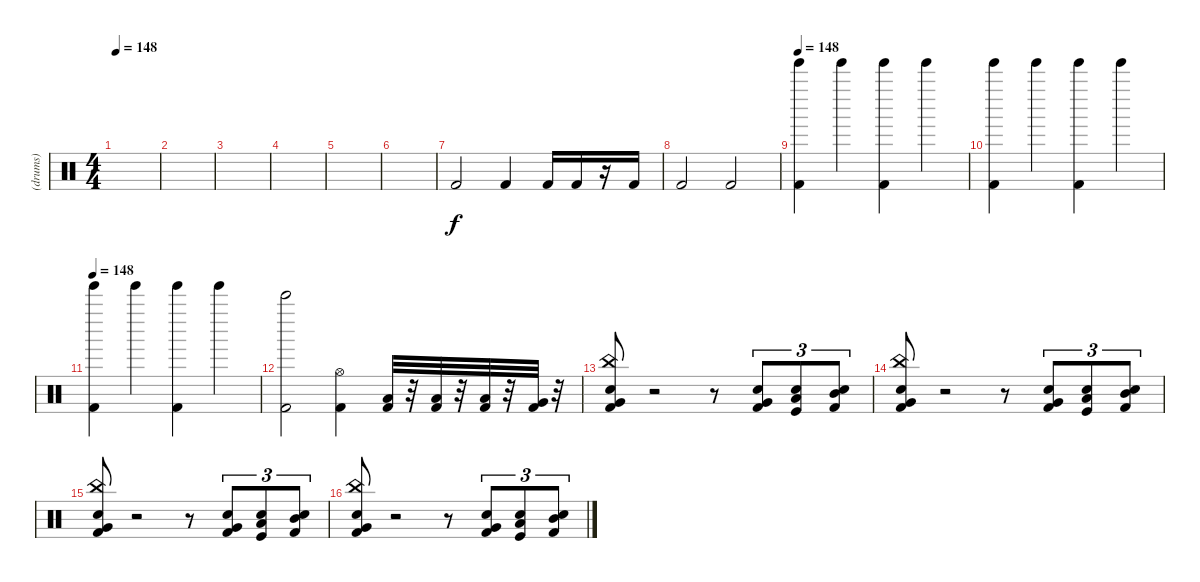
\track ("(drums)" "(drums)") {instrument percussion}
\staff {score}
\articulation defaults
\ts (4 4)
\tempo 148
\clef neutral
\ks c
|
|
|
|
|
|
"Kick (hit) 2".2 "Kick (hit) 2".4 "Kick (hit) 2".16 "Kick (hit) 2".16 r.16 "Kick (hit) 2".16 |
"Kick (hit) 2".2 "Kick (hit) 2".2 |
\tempo 148
("Kick (hit) 2" "Tinkle Bell (hit)").4 "Tinkle Bell (hit)".4 ("Kick (hit) 2" "Tinkle Bell (hit)").4 "Tinkle Bell (hit)".4 |
("Kick (hit) 2" "Tinkle Bell (hit)").4 "Tinkle Bell (hit)".4 ("Kick (hit) 2" "Tinkle Bell (hit)").4 "Tinkle Bell (hit)".4 |
\tempo 148
("Kick (hit) 2" "Tinkle Bell (hit)").4 "Tinkle Bell (hit)".4 ("Kick (hit) 2" "Tinkle Bell (hit)").4 "Tinkle Bell (hit)".4 |
("Bell Tree (hit)" "Kick (hit) 2").2 ("Hi-Hat (open)" "Kick (hit) 2").4 ("Low Tom (hit)" "Kick (hit) 2").32 r.32 ("Low Tom (hit)" "Kick (hit) 2").32 r.32 ("Low Tom (hit)" "Kick (hit) 2").32 r.32 ("Very Low Tom (hit)" "Kick (hit) 2").32 r.32 |
("China (hit)" "Electric Snare (hit)" "Kick (hit) 2" "Very Low Tom (hit)").8 r.2 r.8 ("Kick (hit) 2" "Electric Snare (hit)" "Very Low Tom (hit)").8{tu (3 2)} ("Kick (hit)" "Electric Snare (hit)" "Low Tom (hit)").8{tu (3 2)} ("Kick (hit) 2" "Electric Snare (hit)" "Mid Tom (hit)").8{tu (3 2)} |
("China (hit)" "Electric Snare (hit)" "Kick (hit) 2" "Very Low Tom (hit)").8 r.2 r.8 ("Kick (hit) 2" "Electric Snare (hit)" "Very Low Tom (hit)").8{tu (3 2)} ("Kick (hit)" "Electric Snare (hit)" "Low Tom (hit)").8{tu (3 2)} ("Kick (hit) 2" "Electric Snare (hit)" "Mid Tom (hit)").8{tu (3 2)} |
("China (hit)" "Electric Snare (hit)" "Kick (hit) 2" "Very Low Tom (hit)").8 r.2 r.8 ("Kick (hit) 2" "Electric Snare (hit)" "Very Low Tom (hit)").8{tu (3 2)} ("Kick (hit)" "Electric Snare (hit)" "Low Tom (hit)").8{tu (3 2)} ("Kick (hit) 2" "Electric Snare (hit)" "Mid Tom (hit)").8{tu (3 2)} |
("China (hit)" "Electric Snare (hit)" "Kick (hit) 2" "Very Low Tom (hit)").8 r.2 r.8 ("Kick (hit) 2" "Electric Snare (hit)" "Very Low Tom (hit)").8{tu (3 2)} ("Kick (hit)" "Electric Snare (hit)" "Low Tom (hit)").8{tu (3 2)} ("Kick (hit) 2" "Electric Snare (hit)" "Mid Tom (hit)").8{tu (3 2)}
